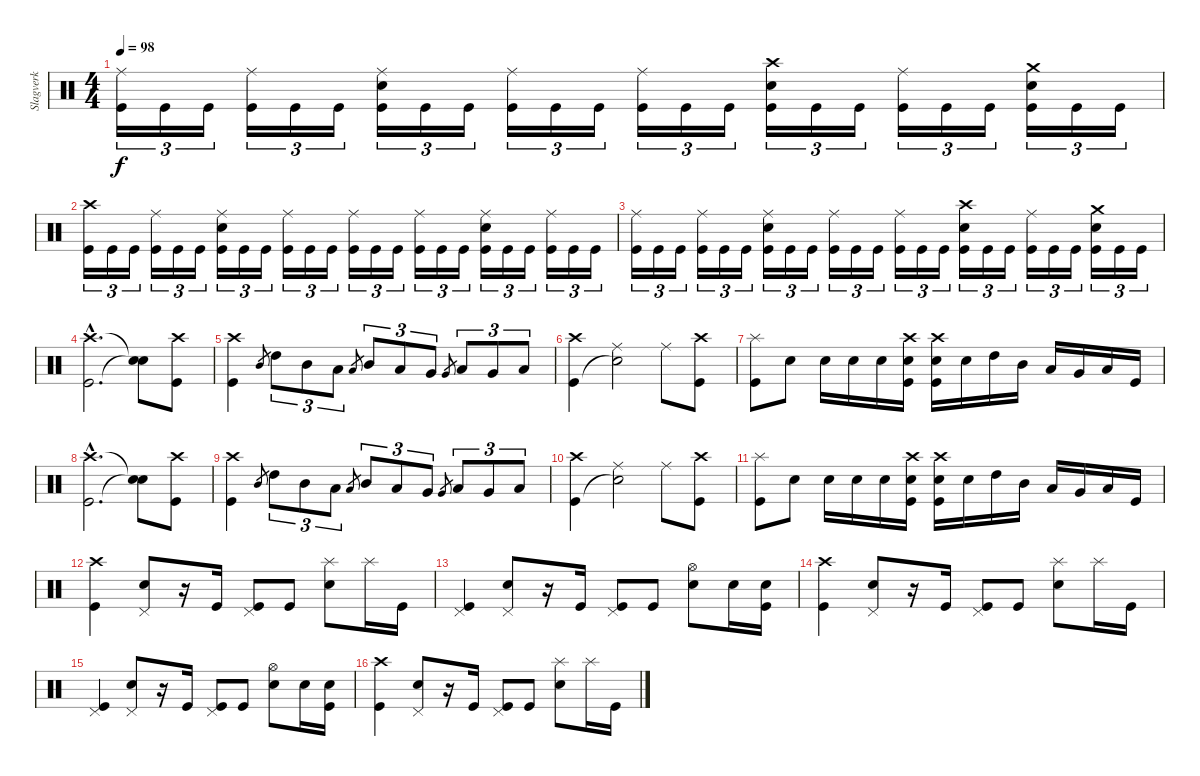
\track ("Slagverk" "Slagverk") {instrument percussion}
\staff {score}
\articulation defaults
\ts (4 4)
\tempo 98
\clef neutral
\ks c
("Ride (middle)" "Kick (hit)").16{tu (3 2) dy f} "Kick (hit)".16{tu (3 2)} "Kick (hit)".16{tu (3 2)} ("Ride (middle)" "Kick (hit)").16{tu (3 2)} "Kick (hit)".16{tu (3 2)} "Kick (hit)".16{tu (3 2)} ("Ride (middle)" "Electric Snare (hit)" "Kick (hit)").16{tu (3 2)} "Kick (hit)".16{tu (3 2)} "Kick (hit)".16{tu (3 2)} ("Ride (middle)" "Kick (hit)").16{tu (3 2)} "Kick (hit)".16{tu (3 2)} "Kick (hit)".16{tu (3 2)} ("Ride (middle)" "Kick (hit)").16{tu (3 2)} "Kick (hit)".16{tu (3 2)} "Kick (hit)".16{tu (3 2)} ("Crash high (hit)" "Electric Snare (hit)" "Kick (hit)").16{tu (3 2)} "Kick (hit)".16{tu (3 2)} "Kick (hit)".16{tu (3 2)} ("Ride (middle)" "Kick (hit)").16{tu (3 2)} "Kick (hit)".16{tu (3 2)} "Kick (hit)".16{tu (3 2)} ("Crash medium (hit)" "Electric Snare (hit)" "Kick (hit)").16{tu (3 2)} "Kick (hit)".16{tu (3 2)} "Kick (hit)".16{tu (3 2)} |
("Crash high (hit)" "Kick (hit)").16{tu (3 2)} "Kick (hit)".16{tu (3 2)} "Kick (hit)".16{tu (3 2)} ("Ride (middle)" "Kick (hit)").16{tu (3 2)} "Kick (hit)".16{tu (3 2)} "Kick (hit)".16{tu (3 2)} ("Ride (middle)" "Electric Snare (hit)" "Kick (hit)").16{tu (3 2)} "Kick (hit)".16{tu (3 2)} "Kick (hit)".16{tu (3 2)} ("Ride (middle)" "Kick (hit)").16{tu (3 2)} "Kick (hit)".16{tu (3 2)} "Kick (hit)".16{tu (3 2)} ("Ride (middle)" "Kick (hit)").16{tu (3 2)} "Kick (hit)".16{tu (3 2)} "Kick (hit)".16{tu (3 2)} ("Ride (middle)" "Kick (hit)").16{tu (3 2)} "Kick (hit)".16{tu (3 2)} "Kick (hit)".16{tu (3 2)} ("Ride (middle)" "Electric Snare (hit)" "Kick (hit)").16{tu (3 2)} "Kick (hit)".16{tu (3 2)} "Kick (hit)".16{tu (3 2)} ("Ride (middle)" "Kick (hit)").16{tu (3 2)} "Kick (hit)".16{tu (3 2)} "Kick (hit)".16{tu (3 2)} |
("Ride (middle)" "Kick (hit)").16{tu (3 2)} "Kick (hit)".16{tu (3 2)} "Kick (hit)".16{tu (3 2)} ("Ride (middle)" "Kick (hit)").16{tu (3 2)} "Kick (hit)".16{tu (3 2)} "Kick (hit)".16{tu (3 2)} ("Ride (middle)" "Electric Snare (hit)" "Kick (hit)").16{tu (3 2)} "Kick (hit)".16{tu (3 2)} "Kick (hit)".16{tu (3 2)} ("Ride (middle)" "Kick (hit)").16{tu (3 2)} "Kick (hit)".16{tu (3 2)} "Kick (hit)".16{tu (3 2)} ("Ride (middle)" "Kick (hit)").16{tu (3 2)} "Kick (hit)".16{tu (3 2)} "Kick (hit)".16{tu (3 2)} ("Crash high (hit)" "Electric Snare (hit)" "Kick (hit)").16{tu (3 2)} "Kick (hit)".16{tu (3 2)} "Kick (hit)".16{tu (3 2)} ("Ride (middle)" "Kick (hit)").16{tu (3 2)} "Kick (hit)".16{tu (3 2)} "Kick (hit)".16{tu (3 2)} ("Crash medium (hit)" "Electric Snare (hit)" "Kick (hit)").16{tu (3 2)} "Kick (hit)".16{tu (3 2)} "Kick (hit)".16{tu (3 2)} |
("Crash high (hit)"{hac} "Kick (hit)"{hac}).2{d} ("Snare (hit)"{t} "Snare (hit)"{t}).8 ("Crash high (hit)" "Kick (hit)").8 |
("Crash high (hit)" "Kick (hit)").4 "Mid Tom (hit)".8{gr} "High Tom (hit)".8{tu (3 2)} "Mid Tom (hit)".8{tu (3 2)} "Low Tom (hit)".8{tu (3 2)} "Low Tom (hit)"{sl}.8{gr} "Mid Tom (hit)".8{tu (3 2)} "Low Tom (hit)".8{tu (3 2)} "Very Low Tom (hit)".8{tu (3 2)} "Very Low Tom (hit)"{sl}.8{gr} "Low Tom (hit)".8{tu (3 2)} "Very Low Tom (hit)".8{tu (3 2)} "Low Floor Tom (hit)".8{tu (3 2)} |
("Crash high (hit)" "Kick (hit)").4 ("Ride (middle)" "Snare (hit)"{t}).2 "Ride (middle)".8 ("Crash high (hit)" "Kick (hit)").8 |
("Splash (hit)" "Kick (hit)").8 "Electric Snare (hit)".8 "Electric Snare (hit)".16 "Electric Snare (hit)".16 "Electric Snare (hit)".16 ("Crash high (hit)" "Electric Snare (hit)" "Kick (hit)").16 ("Crash high (hit)" "Electric Snare (hit)" "Kick (hit)").16 "Electric Snare (hit)".16 "High Tom (hit)".16 "Mid Tom (hit)".16 "Low Tom (hit)".16 "Very Low Tom (hit)".16 "Low Floor Tom (hit)".16 "Kick (hit)".16 |
("Crash high (hit)"{hac} "Kick (hit)"{hac}).2{d} ("Snare (hit)"{t} "Snare (hit)"{t}).8 ("Crash high (hit)" "Kick (hit)").8 |
("Crash high (hit)" "Kick (hit)").4 "Mid Tom (hit)".8{gr} "High Tom (hit)".8{tu (3 2)} "Mid Tom (hit)".8{tu (3 2)} "Low Tom (hit)".8{tu (3 2)} "Low Tom (hit)"{sl}.8{gr} "Mid Tom (hit)".8{tu (3 2)} "Low Tom (hit)".8{tu (3 2)} "Very Low Tom (hit)".8{tu (3 2)} "Very Low Tom (hit)"{sl}.8{gr} "Low Tom (hit)".8{tu (3 2)} "Very Low Tom (hit)".8{tu (3 2)} "Low Floor Tom (hit)".8{tu (3 2)} |
("Crash high (hit)" "Kick (hit)").4 ("Ride (middle)" "Snare (hit)"{t}).2 "Ride (middle)".8 ("Crash high (hit)" "Kick (hit)").8 |
("Splash (hit)" "Kick (hit)").8 "Electric Snare (hit)".8 "Electric Snare (hit)".16 "Electric Snare (hit)".16 "Electric Snare (hit)".16 ("Crash high (hit)" "Electric Snare (hit)" "Kick (hit)").16 ("Crash high (hit)" "Electric Snare (hit)" "Kick (hit)").16 "Electric Snare (hit)".16 "High Tom (hit)".16 "Mid Tom (hit)".16 "Low Tom (hit)".16 "Very Low Tom (hit)".16 "Low Floor Tom (hit)".16 "Kick (hit)".16 |
("Crash high (hit)" "Kick (hit)").4 ("Pedal Hi-Hat (hit)" "Snare (hit) 2").8 r.16 "Kick (hit)".16 ("Pedal Hi-Hat (hit)" "Kick (hit)").8 "Kick (hit)".8 ("Splash (hit)" "Snare (hit) 2").8 "Splash (hit)".16 "Kick (hit)".16 |
("Pedal Hi-Hat (hit)" "Kick (hit)").4 ("Pedal Hi-Hat (hit)" "Snare (hit) 2").8 r.16 "Kick (hit)".16 ("Pedal Hi-Hat (hit)" "Kick (hit)").8 "Kick (hit)".8 ("Hi-Hat (open)" "Snare (hit) 2").8 "Snare (hit) 2".16 ("Snare (hit) 2" "Kick (hit)").16 |
("Crash high (hit)" "Kick (hit)").4 ("Pedal Hi-Hat (hit)" "Snare (hit) 2").8 r.16 "Kick (hit)".16 ("Pedal Hi-Hat (hit)" "Kick (hit)").8 "Kick (hit)".8 ("Splash (hit)" "Snare (hit) 2").8 "Splash (hit)".16 "Kick (hit)".16 |
("Pedal Hi-Hat (hit)" "Kick (hit)").4 ("Pedal Hi-Hat (hit)" "Snare (hit) 2").8 r.16 "Kick (hit)".16 ("Pedal Hi-Hat (hit)" "Kick (hit)").8 "Kick (hit)".8 ("Hi-Hat (open)" "Snare (hit) 2").8 "Snare (hit) 2".16 ("Snare (hit) 2" "Kick (hit)").16 |
("Crash high (hit)" "Kick (hit)").4 ("Pedal Hi-Hat (hit)" "Snare (hit) 2").8 r.16 "Kick (hit)".16 ("Pedal Hi-Hat (hit)" "Kick (hit)").8 "Kick (hit)".8 ("Splash (hit)" "Snare (hit) 2").8 "Splash (hit)".16 "Kick (hit)".16
